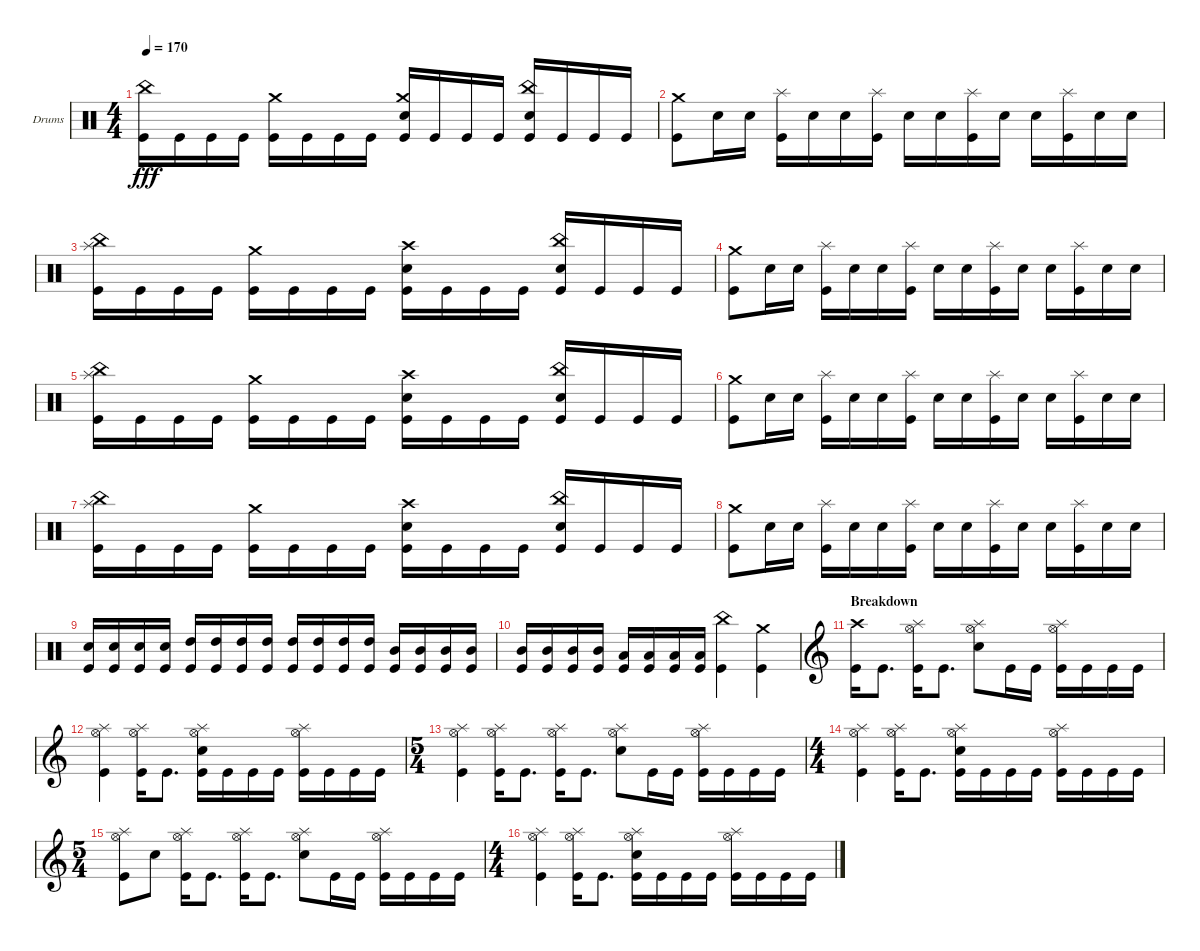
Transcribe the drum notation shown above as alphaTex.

\defaultSystemsLayout 4
\bracketExtendMode groupsimilarinstruments
\firstSystemTrackNameOrientation horizontal
\otherSystemsTrackNameOrientation horizontal
\track ("Chris Adler" "Drums") {instrument percussion}
\staff {score}
\articulation defaults
\ts (4 4)
\tempo 170
\clef neutral
\ks c
("Kick (hit)" "China (hit)").16{dy fff} "Kick (hit)".16 "Kick (hit)".16 "Kick (hit)".16 ("Kick (hit)" "Crash medium (hit)").16 "Kick (hit)".16 "Kick (hit)".16 "Kick (hit)".16 ("Kick (hit)" "Crash medium (hit)" "Snare (hit) 2").16 "Kick (hit)".16 "Kick (hit)".16 "Kick (hit)".16 ("Kick (hit)" "Snare (hit) 2" "China (hit)").16 "Kick (hit)".16 "Kick (hit)".16 "Kick (hit)".16 |
("Kick (hit)" "Crash medium (hit)").8 "Snare (hit) 2".16 "Snare (hit) 2".16 ("Kick (hit)" "Splash (hit)").16 "Snare (hit) 2".16 "Snare (hit) 2".16 ("Kick (hit)" "Splash (hit)").16 "Snare (hit) 2".16 "Snare (hit) 2".16 ("Kick (hit)" "Splash (hit)").16 "Snare (hit) 2".16 "Snare (hit) 2".16 ("Kick (hit)" "Splash (hit)").16 "Snare (hit) 2".16 "Snare (hit) 2".16 |
("Kick (hit)" "China (hit)" "Splash (hit)").16 "Kick (hit)".16 "Kick (hit)".16 "Kick (hit)".16 ("Kick (hit)" "Crash medium (hit)").16 "Kick (hit)".16 "Kick (hit)".16 "Kick (hit)".16 ("Kick (hit)" "Snare (hit) 2" "Crash high (hit)").16 "Kick (hit)".16 "Kick (hit)".16 "Kick (hit)".16 ("Kick (hit)" "Snare (hit) 2" "China (hit)").16 "Kick (hit)".16 "Kick (hit)".16 "Kick (hit)".16 |
("Kick (hit)" "Crash medium (hit)").8 "Snare (hit) 2".16 "Snare (hit) 2".16 ("Kick (hit)" "Splash (hit)").16 "Snare (hit) 2".16 "Snare (hit) 2".16 ("Kick (hit)" "Splash (hit)").16 "Snare (hit) 2".16 "Snare (hit) 2".16 ("Kick (hit)" "Splash (hit)").16 "Snare (hit) 2".16 "Snare (hit) 2".16 ("Kick (hit)" "Splash (hit)").16 "Snare (hit) 2".16 "Snare (hit) 2".16 |
("Kick (hit)" "China (hit)" "Splash (hit)").16 "Kick (hit)".16 "Kick (hit)".16 "Kick (hit)".16 ("Kick (hit)" "Crash medium (hit)").16 "Kick (hit)".16 "Kick (hit)".16 "Kick (hit)".16 ("Kick (hit)" "Snare (hit) 2" "Crash high (hit)").16 "Kick (hit)".16 "Kick (hit)".16 "Kick (hit)".16 ("Kick (hit)" "Snare (hit) 2" "China (hit)").16 "Kick (hit)".16 "Kick (hit)".16 "Kick (hit)".16 |
("Kick (hit)" "Crash medium (hit)").8 "Snare (hit) 2".16 "Snare (hit) 2".16 ("Kick (hit)" "Splash (hit)").16 "Snare (hit) 2".16 "Snare (hit) 2".16 ("Kick (hit)" "Splash (hit)").16 "Snare (hit) 2".16 "Snare (hit) 2".16 ("Kick (hit)" "Splash (hit)").16 "Snare (hit) 2".16 "Snare (hit) 2".16 ("Kick (hit)" "Splash (hit)").16 "Snare (hit) 2".16 "Snare (hit) 2".16 |
("Kick (hit)" "China (hit)" "Splash (hit)").16 "Kick (hit)".16 "Kick (hit)".16 "Kick (hit)".16 ("Kick (hit)" "Crash medium (hit)").16 "Kick (hit)".16 "Kick (hit)".16 "Kick (hit)".16 ("Kick (hit)" "Snare (hit) 2" "Crash high (hit)").16 "Kick (hit)".16 "Kick (hit)".16 "Kick (hit)".16 ("Kick (hit)" "Snare (hit) 2" "China (hit)").16 "Kick (hit)".16 "Kick (hit)".16 "Kick (hit)".16 |
("Kick (hit)" "Crash medium (hit)").8 "Snare (hit) 2".16 "Snare (hit) 2".16 ("Kick (hit)" "Splash (hit)").16 "Snare (hit) 2".16 "Snare (hit) 2".16 ("Kick (hit)" "Splash (hit)").16 "Snare (hit) 2".16 "Snare (hit) 2".16 ("Kick (hit)" "Splash (hit)").16 "Snare (hit) 2".16 "Snare (hit) 2".16 ("Kick (hit)" "Splash (hit)").16 "Snare (hit) 2".16 "Snare (hit) 2".16 |
("Kick (hit)" "Snare (hit) 2").16 ("Kick (hit)" "Snare (hit) 2").16 ("Kick (hit)" "Snare (hit) 2").16 ("Kick (hit)" "Snare (hit) 2").16 ("Kick (hit)" "High Tom (hit)").16 ("Kick (hit)" "High Tom (hit)").16 ("Kick (hit)" "High Tom (hit)").16 ("Kick (hit)" "High Tom (hit)").16 ("Kick (hit)" "High Tom (hit)").16 ("Kick (hit)" "High Tom (hit)").16 ("Kick (hit)" "High Tom (hit)").16 ("Kick (hit)" "High Tom (hit)").16 ("Kick (hit)" "Mid Tom (hit)").16 ("Kick (hit)" "Mid Tom (hit)").16 ("Kick (hit)" "Mid Tom (hit)").16 ("Kick (hit)" "Mid Tom (hit)").16 |
("Kick (hit)" "Mid Tom (hit)").16 ("Kick (hit)" "Mid Tom (hit)").16 ("Kick (hit)" "Mid Tom (hit)").16 ("Kick (hit)" "Mid Tom (hit)").16 ("Kick (hit)" "Low Tom (hit)").16 ("Kick (hit)" "Low Tom (hit)").16 ("Kick (hit)" "Low Tom (hit)").16 ("Kick (hit)" "Low Tom (hit)").16 ("Kick (hit)" "China (hit)").4 ("Kick (hit)" "Crash medium (hit)").4 |
\section ("" "Breakdown")
\clef g2
("Kick (hit)" "Crash high (hit)").16 "Kick (hit)".8{d} ("Kick (hit)" "Hi-Hat (open)" "Splash (hit)").16 "Kick (hit)".8{d} ("Snare (hit) 2" "Hi-Hat (open)" "Splash (hit)").8 "Kick (hit)".16 "Kick (hit)".16 ("Kick (hit)" "Hi-Hat (open)" "Splash (hit)").16 "Kick (hit)".16 "Kick (hit)".16 "Kick (hit)".16 |
("Kick (hit)" "Hi-Hat (open)" "Splash (hit)").4 ("Kick (hit)" "Hi-Hat (open)" "Splash (hit)").16 "Kick (hit)".8{d} ("Kick (hit)" "Snare (hit) 2" "Hi-Hat (open)" "Splash (hit)").16 "Kick (hit)".16 "Kick (hit)".16 "Kick (hit)".16 ("Kick (hit)" "Hi-Hat (open)" "Splash (hit)").16 "Kick (hit)".16 "Kick (hit)".16 "Kick (hit)".16 |
\ts (5 4)
("Kick (hit)" "Hi-Hat (open)" "Splash (hit)").4 ("Kick (hit)" "Hi-Hat (open)" "Splash (hit)").16 "Kick (hit)".8{d} ("Kick (hit)" "Hi-Hat (open)" "Splash (hit)").16 "Kick (hit)".8{d} ("Snare (hit) 2" "Hi-Hat (open)" "Splash (hit)").8 "Kick (hit)".16 "Kick (hit)".16 ("Kick (hit)" "Hi-Hat (open)" "Splash (hit)").16 "Kick (hit)".16 "Kick (hit)".16 "Kick (hit)".16 |
\ts (4 4)
("Kick (hit)" "Hi-Hat (open)" "Splash (hit)").4 ("Kick (hit)" "Hi-Hat (open)" "Splash (hit)").16 "Kick (hit)".8{d} ("Kick (hit)" "Snare (hit) 2" "Hi-Hat (open)" "Splash (hit)").16 "Kick (hit)".16 "Kick (hit)".16 "Kick (hit)".16 ("Kick (hit)" "Hi-Hat (open)" "Splash (hit)").16 "Kick (hit)".16 "Kick (hit)".16 "Kick (hit)".16 |
\ts (5 4)
("Kick (hit)" "Hi-Hat (open)" "Splash (hit)").8 "Snare (hit) 2".8 ("Kick (hit)" "Hi-Hat (open)" "Splash (hit)").16 "Kick (hit)".8{d} ("Kick (hit)" "Hi-Hat (open)" "Splash (hit)").16 "Kick (hit)".8{d} ("Hi-Hat (open)" "Snare (hit) 2" "Splash (hit)").8 "Kick (hit)".16 "Kick (hit)".16 ("Kick (hit)" "Hi-Hat (open)" "Splash (hit)").16 "Kick (hit)".16 "Kick (hit)".16 "Kick (hit)".16 |
\ts (4 4)
("Kick (hit)" "Hi-Hat (open)" "Splash (hit)").4 ("Kick (hit)" "Hi-Hat (open)" "Splash (hit)").16 "Kick (hit)".8{d} ("Kick (hit)" "Snare (hit) 2" "Hi-Hat (open)" "Splash (hit)").16 "Kick (hit)".16 "Kick (hit)".16 "Kick (hit)".16 ("Kick (hit)" "Hi-Hat (open)" "Splash (hit)").16 "Kick (hit)".16 "Kick (hit)".16 "Kick (hit)".16
